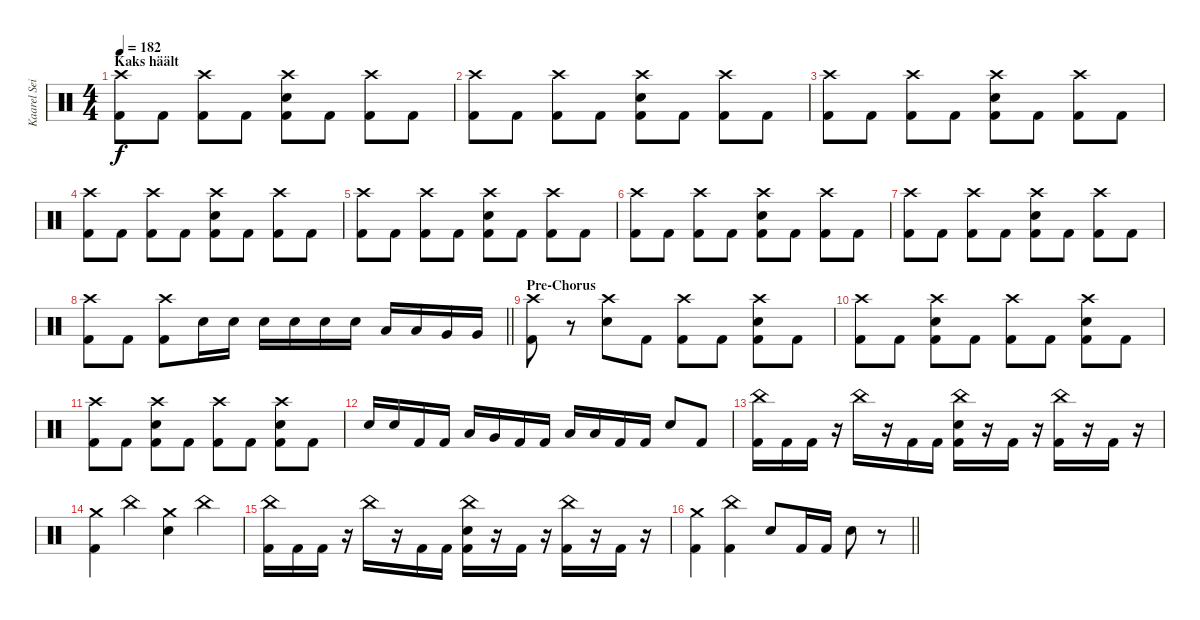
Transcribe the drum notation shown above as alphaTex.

\track ("Kaarel Sein" "Kaarel Sei") {instrument percussion}
\staff {score}
\articulation defaults
\ts (4 4)
\section ("" "Kaks häält")
\tempo 182
\clef neutral
\ks c
("Crash high (hit)" "Kick (hit) 2").8{dy f} "Kick (hit) 2".8 ("Crash high (hit)" "Kick (hit) 2").8 "Kick (hit) 2".8 ("Crash high (hit)" "Electric Snare (hit)" "Kick (hit) 2").8 "Kick (hit) 2".8 ("Crash high (hit)" "Kick (hit) 2").8 "Kick (hit) 2".8 |
("Crash high (hit)" "Kick (hit) 2").8 "Kick (hit) 2".8 ("Crash high (hit)" "Kick (hit) 2").8 "Kick (hit) 2".8 ("Crash high (hit)" "Electric Snare (hit)" "Kick (hit) 2").8 "Kick (hit) 2".8 ("Crash high (hit)" "Kick (hit) 2").8 "Kick (hit) 2".8 |
("Crash high (hit)" "Kick (hit) 2").8 "Kick (hit) 2".8 ("Crash high (hit)" "Kick (hit) 2").8 "Kick (hit) 2".8 ("Crash high (hit)" "Electric Snare (hit)" "Kick (hit) 2").8 "Kick (hit) 2".8 ("Crash high (hit)" "Kick (hit) 2").8 "Kick (hit) 2".8 |
("Crash high (hit)" "Kick (hit) 2").8 "Kick (hit) 2".8 ("Crash high (hit)" "Kick (hit) 2").8 "Kick (hit) 2".8 ("Crash high (hit)" "Electric Snare (hit)" "Kick (hit) 2").8 "Kick (hit) 2".8 ("Crash high (hit)" "Kick (hit) 2").8 "Kick (hit) 2".8 |
("Crash high (hit)" "Kick (hit) 2").8 "Kick (hit) 2".8 ("Crash high (hit)" "Kick (hit) 2").8 "Kick (hit) 2".8 ("Crash high (hit)" "Electric Snare (hit)" "Kick (hit) 2").8 "Kick (hit) 2".8 ("Crash high (hit)" "Kick (hit) 2").8 "Kick (hit) 2".8 |
("Crash high (hit)" "Kick (hit) 2").8 "Kick (hit) 2".8 ("Crash high (hit)" "Kick (hit) 2").8 "Kick (hit) 2".8 ("Crash high (hit)" "Electric Snare (hit)" "Kick (hit) 2").8 "Kick (hit) 2".8 ("Crash high (hit)" "Kick (hit) 2").8 "Kick (hit) 2".8 |
("Crash high (hit)" "Kick (hit) 2").8 "Kick (hit) 2".8 ("Crash high (hit)" "Kick (hit) 2").8 "Kick (hit) 2".8 ("Crash high (hit)" "Electric Snare (hit)" "Kick (hit) 2").8 "Kick (hit) 2".8 ("Crash high (hit)" "Kick (hit) 2").8 "Kick (hit) 2".8 |
\barLineRight lightlight
("Crash high (hit)" "Kick (hit) 2").8 "Kick (hit) 2".8 ("Crash high (hit)" "Kick (hit) 2").8 "Electric Snare (hit)".16 "Electric Snare (hit)".16 "Electric Snare (hit)".16 "Electric Snare (hit)".16 "Electric Snare (hit)".16 "Electric Snare (hit)".16 "Low Tom (hit)".16 "Low Tom (hit)".16 "Very Low Tom (hit)".16 "Very Low Tom (hit)".16 |
\section ("" "Pre-Chorus")
("Crash high (hit)" "Kick (hit) 2").8 r.8 ("Crash high (hit)" "Electric Snare (hit)").8 "Kick (hit) 2".8 ("Crash high (hit)" "Kick (hit) 2").8 "Kick (hit) 2".8 ("Crash high (hit)" "Electric Snare (hit)" "Kick (hit) 2").8 "Kick (hit) 2".8 |
("Crash high (hit)" "Kick (hit) 2").8 "Kick (hit) 2".8 ("Crash high (hit)" "Electric Snare (hit)" "Kick (hit) 2").8 "Kick (hit) 2".8 ("Crash high (hit)" "Kick (hit) 2").8 "Kick (hit) 2".8 ("Crash high (hit)" "Electric Snare (hit)" "Kick (hit) 2").8 "Kick (hit) 2".8 |
("Crash high (hit)" "Kick (hit) 2").8 "Kick (hit) 2".8 ("Crash high (hit)" "Electric Snare (hit)" "Kick (hit) 2").8 "Kick (hit) 2".8 ("Crash high (hit)" "Kick (hit) 2").8 "Kick (hit) 2".8 ("Crash high (hit)" "Electric Snare (hit)" "Kick (hit) 2").8 "Kick (hit) 2".8 |
"Electric Snare (hit)".16 "Electric Snare (hit)".16 "Kick (hit) 2".16 "Kick (hit) 2".16 "Low Tom (hit)".16 "Very Low Tom (hit)".16 "Kick (hit) 2".16 "Kick (hit) 2".16 "Low Floor Tom (hit)".16 "Low Floor Tom (hit)".16 "Kick (hit) 2".16 "Kick (hit) 2".16 "Electric Snare (hit)".8 "Kick (hit) 2".8 |
("China (hit)" "Kick (hit) 2").16 "Kick (hit) 2".16 "Kick (hit) 2".16 r.16 "China (hit)".16 r.16 "Kick (hit) 2".16 "Kick (hit) 2".16 ("China (hit)" "Electric Snare (hit)" "Kick (hit) 2").16 r.16 "Kick (hit) 2".16 r.16 ("China (hit)" "Kick (hit) 2").16 r.16 "Kick (hit) 2".16 r.16 |
("Crash medium (hit)" "Kick (hit) 2").4 "China (hit)".4 ("Crash medium (hit)" "Electric Snare (hit)").4 "China (hit)".4 |
("China (hit)" "Kick (hit) 2").16 "Kick (hit) 2".16 "Kick (hit) 2".16 r.16 "China (hit)".16 r.16 "Kick (hit) 2".16 "Kick (hit) 2".16 ("China (hit)" "Electric Snare (hit)" "Kick (hit) 2").16 r.16 "Kick (hit) 2".16 r.16 ("China (hit)" "Kick (hit) 2").16 r.16 "Kick (hit) 2".16 r.16 |
\barLineRight lightlight
("Crash medium (hit)" "Kick (hit) 2").4 ("China (hit)" "Kick (hit) 2").4 "Electric Snare (hit)".8 "Kick (hit) 2".16 "Kick (hit) 2".16 "Electric Snare (hit)".8 r.8
